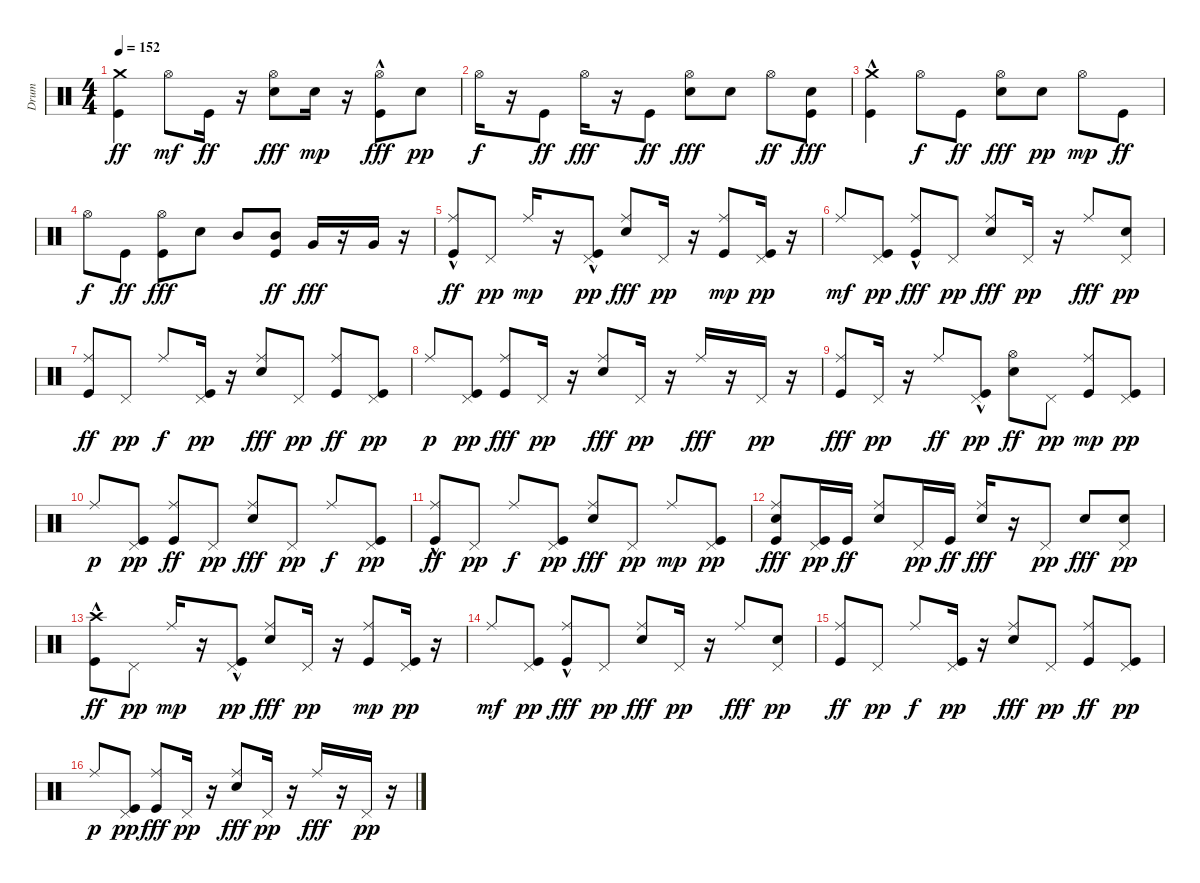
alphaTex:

\track ("Drum" "Drum") {instrument percussion}
\staff {score}
\articulation defaults
\ts (4 4)
\tempo 152
\clef neutral
\ks c
("Kick (hit)" "Crash medium (hit)").4{dy ff} "Hi-Hat (open)".8{dy mf} "Kick (hit)".16{dy ff} r.16 ("Electric Snare (hit)" "Hi-Hat (open)").8{dy fff} "Electric Snare (hit)".16{dy mp} r.16 ("Kick (hit)"{hac} "Hi-Hat (open)").8{dy fff} "Electric Snare (hit)".8{dy pp} |
"Hi-Hat (open)".16{dy f} r.16 "Kick (hit)".8{dy ff} "Hi-Hat (open)".16{dy fff} r.16 "Kick (hit)".8{dy ff} ("Electric Snare (hit)" "Hi-Hat (open)").8{dy fff} "Electric Snare (hit)".8 "Hi-Hat (open)".8{dy ff} ("Kick (hit)" "Electric Snare (hit)").8{dy fff} |
("Kick (hit)"{hac} "Crash medium (hit)").4 "Hi-Hat (open)".8{dy f} "Kick (hit)".8{dy ff} ("Electric Snare (hit)" "Hi-Hat (open)").8{dy fff} "Electric Snare (hit)".8{dy pp} "Hi-Hat (open)".8{dy mp} "Kick (hit)".8{dy ff} |
"Hi-Hat (open)".8{dy f} "Kick (hit)".8{dy ff} ("Kick (hit)" "Hi-Hat (open)").8{dy fff} "Electric Snare (hit)".8 "Mid Tom (hit)".8 ("Kick (hit)" "Mid Tom (hit)").8{dy ff} "Very Low Tom (hit)".16{dy fff} r.16 "Very Low Tom (hit)".16 r.16 |
("Kick (hit)"{hac} "Ride (middle)").8{dy ff} "Pedal Hi-Hat (hit)".8{dy pp} "Ride (middle)".16{dy mp} r.16 ("Kick (hit)"{hac} "Pedal Hi-Hat (hit)").8{dy pp} ("Electric Snare (hit)" "Ride (middle)").8{dy fff} "Pedal Hi-Hat (hit)".16{dy pp} r.16 ("Kick (hit)" "Ride (middle)").8{dy mp} ("Kick (hit)" "Pedal Hi-Hat (hit)").16{dy pp} r.16 |
"Ride (middle)".8{dy mf} ("Kick (hit)" "Pedal Hi-Hat (hit)").8{dy pp} ("Kick (hit)"{hac} "Ride (middle)").8{dy fff} "Pedal Hi-Hat (hit)".8{dy pp} ("Electric Snare (hit)" "Ride (middle)").8{dy fff} "Pedal Hi-Hat (hit)".16{dy pp} r.16 "Ride (middle)".8{dy fff} ("Electric Snare (hit)" "Pedal Hi-Hat (hit)").8{dy pp} |
("Kick (hit)" "Ride (middle)").8{dy ff} "Pedal Hi-Hat (hit)".8{dy pp} "Ride (middle)".8{dy f} ("Kick (hit)" "Pedal Hi-Hat (hit)").16{dy pp} r.16 ("Electric Snare (hit)" "Ride (middle)").8{dy fff} "Pedal Hi-Hat (hit)".8{dy pp} ("Kick (hit)" "Ride (middle)").8{dy ff} ("Kick (hit)" "Pedal Hi-Hat (hit)").8{dy pp} |
"Ride (middle)".8{dy p} ("Kick (hit)" "Pedal Hi-Hat (hit)").8{dy pp} ("Kick (hit)" "Ride (middle)").8{dy fff} "Pedal Hi-Hat (hit)".16{dy pp} r.16 ("Electric Snare (hit)" "Ride (middle)").8{dy fff} "Pedal Hi-Hat (hit)".16{dy pp} r.16 "Ride (middle)".16{dy fff} r.16 "Pedal Hi-Hat (hit)".16{dy pp} r.16 |
("Kick (hit)" "Ride (middle)").8{dy fff} "Pedal Hi-Hat (hit)".16{dy pp} r.16 "Ride (middle)".8{dy ff} ("Kick (hit)"{hac} "Pedal Hi-Hat (hit)").8{dy pp} ("Electric Snare (hit)" "Hi-Hat (open)").8{dy ff} "Pedal Hi-Hat (hit)".8{dy pp} ("Kick (hit)" "Ride (middle)").8{dy mp} ("Kick (hit)" "Pedal Hi-Hat (hit)").8{dy pp} |
"Ride (middle)".8{dy p} ("Kick (hit)" "Pedal Hi-Hat (hit)").8{dy pp} ("Kick (hit)" "Ride (middle)").8{dy ff} "Pedal Hi-Hat (hit)".8{dy pp} ("Electric Snare (hit)" "Ride (middle)").8{dy fff} "Pedal Hi-Hat (hit)".8{dy pp} "Ride (middle)".8{dy f} ("Kick (hit)" "Pedal Hi-Hat (hit)").8{dy pp} |
("Kick (hit)"{hac} "Ride (middle)").8{dy ff} "Pedal Hi-Hat (hit)".8{dy pp} "Ride (middle)".8{dy f} ("Kick (hit)" "Pedal Hi-Hat (hit)").8{dy pp} ("Electric Snare (hit)" "Ride (middle)").8{dy fff} "Pedal Hi-Hat (hit)".8{dy pp} "Ride (middle)".8{dy mp} ("Kick (hit)" "Pedal Hi-Hat (hit)").8{dy pp} |
("Kick (hit)" "Electric Snare (hit)" "Ride (middle)").8{dy fff} ("Kick (hit)" "Pedal Hi-Hat (hit)").16{dy pp} "Kick (hit)".16{dy ff} ("Electric Snare (hit)" "Ride (middle)").8 "Pedal Hi-Hat (hit)".16{dy pp} "Kick (hit)".16{dy ff} ("Electric Snare (hit)" "Ride (middle)").16{dy fff} r.16 "Pedal Hi-Hat (hit)".8{dy pp} "Electric Snare (hit)".8{dy fff} ("Electric Snare (hit)" "Pedal Hi-Hat (hit)").8{dy pp} |
("Kick (hit)"{hac} "Crash high (hit)").8{dy ff} "Pedal Hi-Hat (hit)".8{dy pp} "Ride (middle)".16{dy mp} r.16 ("Kick (hit)"{hac} "Pedal Hi-Hat (hit)").8{dy pp} ("Electric Snare (hit)" "Ride (middle)").8{dy fff} "Pedal Hi-Hat (hit)".16{dy pp} r.16 ("Kick (hit)" "Ride (middle)").8{dy mp} ("Kick (hit)" "Pedal Hi-Hat (hit)").16{dy pp} r.16 |
"Ride (middle)".8{dy mf} ("Kick (hit)" "Pedal Hi-Hat (hit)").8{dy pp} ("Kick (hit)"{hac} "Ride (middle)").8{dy fff} "Pedal Hi-Hat (hit)".8{dy pp} ("Electric Snare (hit)" "Ride (middle)").8{dy fff} "Pedal Hi-Hat (hit)".16{dy pp} r.16 "Ride (middle)".8{dy fff} ("Electric Snare (hit)" "Pedal Hi-Hat (hit)").8{dy pp} |
("Kick (hit)" "Ride (middle)").8{dy ff} "Pedal Hi-Hat (hit)".8{dy pp} "Ride (middle)".8{dy f} ("Kick (hit)" "Pedal Hi-Hat (hit)").16{dy pp} r.16 ("Electric Snare (hit)" "Ride (middle)").8{dy fff} "Pedal Hi-Hat (hit)".8{dy pp} ("Kick (hit)" "Ride (middle)").8{dy ff} ("Kick (hit)" "Pedal Hi-Hat (hit)").8{dy pp} |
"Ride (middle)".8{dy p} ("Kick (hit)" "Pedal Hi-Hat (hit)").8{dy pp} ("Kick (hit)" "Ride (middle)").8{dy fff} "Pedal Hi-Hat (hit)".16{dy pp} r.16 ("Electric Snare (hit)" "Ride (middle)").8{dy fff} "Pedal Hi-Hat (hit)".16{dy pp} r.16 "Ride (middle)".16{dy fff} r.16 "Pedal Hi-Hat (hit)".16{dy pp} r.16
